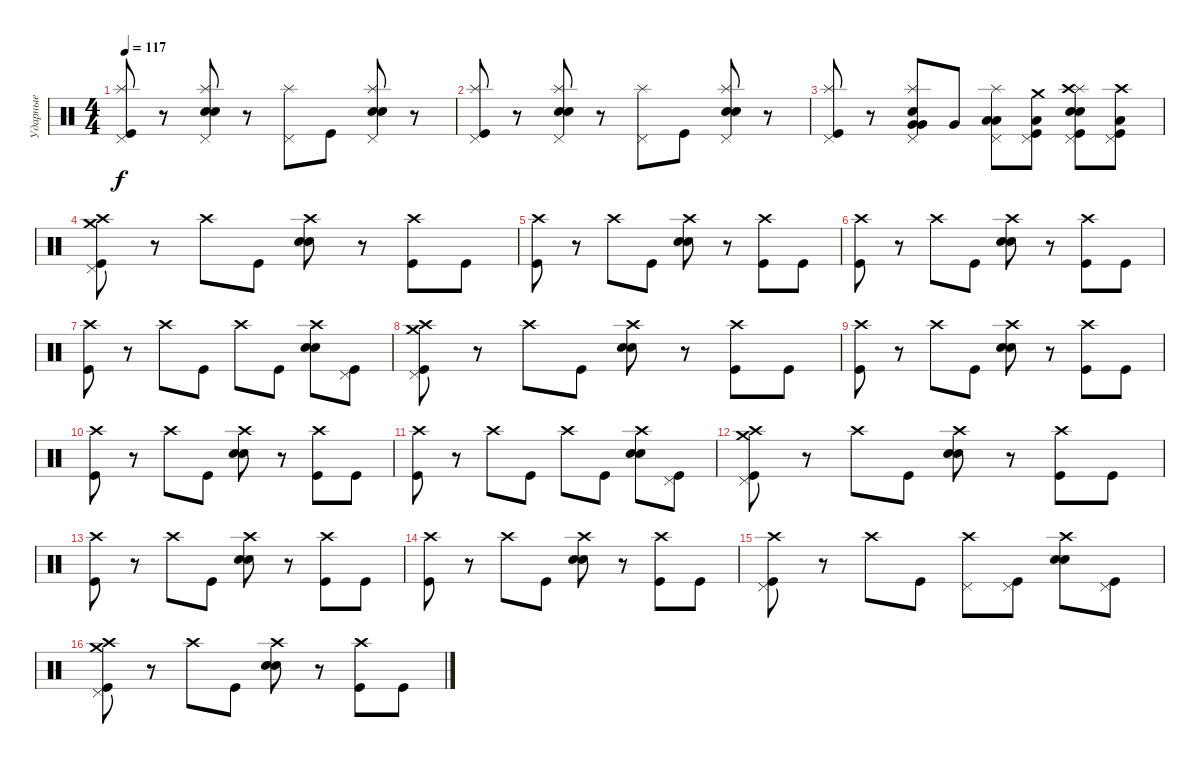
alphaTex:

\track ("Ударные" "Ударные") {instrument percussion}
\staff {score}
\articulation defaults
\ts (4 4)
\tempo 117
\clef neutral
\ks c
("Pedal Hi-Hat (hit)" "Splash (hit)" "Kick (hit)").8{dy f} r.8 ("Splash (hit)" "Pedal Hi-Hat (hit)" "Electric Snare (hit)" "Electric Snare (hit)").8 r.8 ("Splash (hit)" "Pedal Hi-Hat (hit)").8 "Kick (hit)".8 ("Splash (hit)" "Pedal Hi-Hat (hit)" "Electric Snare (hit)" "Electric Snare (hit)").8 r.8 |
("Pedal Hi-Hat (hit)" "Splash (hit)" "Kick (hit)").8 r.8 ("Splash (hit)" "Pedal Hi-Hat (hit)" "Electric Snare (hit)" "Electric Snare (hit)").8 r.8 ("Splash (hit)" "Pedal Hi-Hat (hit)").8 "Kick (hit)".8 ("Splash (hit)" "Pedal Hi-Hat (hit)" "Electric Snare (hit)" "Electric Snare (hit)").8 r.8 |
("Pedal Hi-Hat (hit)" "Splash (hit)" "Kick (hit)").8 r.8 ("Splash (hit)" "Pedal Hi-Hat (hit)" "Very Low Tom (hit)" "Very Low Tom (hit)" "Electric Snare (hit)").8 "Very Low Tom (hit)".8 ("Splash (hit)" "Pedal Hi-Hat (hit)" "Low Floor Tom (hit)" "Low Floor Tom (hit)").8 ("Crash medium (hit)" "Low Floor Tom (hit)" "Pedal Hi-Hat (hit)" "Kick (hit)").8 ("Splash (hit)" "Crash high (hit)" "Snare (hit) 2" "Electric Snare (hit)" "Pedal Hi-Hat (hit)" "Kick (hit)").8 ("Crash high (hit)" "Low Floor Tom (hit)" "Pedal Hi-Hat (hit)" "Kick (hit)").8 |
("Crash high (hit)" "Pedal Hi-Hat (hit)" "Crash medium (hit)" "Kick (hit)").8 r.8 "Crash high (hit)".8 "Kick (hit)".8 ("Crash high (hit)" "Snare (hit) 2" "Snare (hit) 2").8 r.8 ("Crash high (hit)" "Kick (hit)").8 "Kick (hit)".8 |
("Crash high (hit)" "Kick (hit)").8 r.8 "Crash high (hit)".8 "Kick (hit)".8 ("Crash high (hit)" "Snare (hit) 2" "Snare (hit) 2").8 r.8 ("Crash high (hit)" "Kick (hit)").8 "Kick (hit)".8 |
("Crash high (hit)" "Kick (hit)").8 r.8 "Crash high (hit)".8 "Kick (hit)".8 ("Crash high (hit)" "Snare (hit) 2" "Snare (hit) 2").8 r.8 ("Crash high (hit)" "Kick (hit)").8 "Kick (hit)".8 |
("Crash high (hit)" "Kick (hit)").8 r.8 "Crash high (hit)".8 "Kick (hit)".8 "Crash high (hit)".8 "Kick (hit)".8 ("Crash high (hit)" "Snare (hit) 2" "Snare (hit) 2").8 ("Pedal Hi-Hat (hit)" "Kick (hit)").8 |
("Crash high (hit)" "Pedal Hi-Hat (hit)" "Crash medium (hit)" "Kick (hit)").8 r.8 "Crash high (hit)".8 "Kick (hit)".8 ("Crash high (hit)" "Snare (hit) 2" "Snare (hit) 2").8 r.8 ("Crash high (hit)" "Kick (hit)").8 "Kick (hit)".8 |
("Crash high (hit)" "Kick (hit)").8 r.8 "Crash high (hit)".8 "Kick (hit)".8 ("Crash high (hit)" "Snare (hit) 2" "Snare (hit) 2").8 r.8 ("Crash high (hit)" "Kick (hit)").8 "Kick (hit)".8 |
("Crash high (hit)" "Kick (hit)").8 r.8 "Crash high (hit)".8 "Kick (hit)".8 ("Crash high (hit)" "Snare (hit) 2" "Snare (hit) 2").8 r.8 ("Crash high (hit)" "Kick (hit)").8 "Kick (hit)".8 |
("Crash high (hit)" "Kick (hit)").8 r.8 "Crash high (hit)".8 "Kick (hit)".8 "Crash high (hit)".8 "Kick (hit)".8 ("Crash high (hit)" "Snare (hit) 2" "Snare (hit) 2").8 ("Pedal Hi-Hat (hit)" "Kick (hit)").8 |
("Crash high (hit)" "Pedal Hi-Hat (hit)" "Crash medium (hit)" "Kick (hit)").8 r.8 "Crash high (hit)".8 "Kick (hit)".8 ("Crash high (hit)" "Snare (hit) 2" "Snare (hit) 2").8 r.8 ("Crash high (hit)" "Kick (hit)").8 "Kick (hit)".8 |
("Crash high (hit)" "Kick (hit)").8 r.8 "Crash high (hit)".8 "Kick (hit)".8 ("Crash high (hit)" "Snare (hit) 2" "Snare (hit) 2").8 r.8 ("Crash high (hit)" "Kick (hit)").8 "Kick (hit)".8 |
("Crash high (hit)" "Kick (hit)").8 r.8 "Crash high (hit)".8 "Kick (hit)".8 ("Crash high (hit)" "Snare (hit) 2" "Snare (hit) 2").8 r.8 ("Crash high (hit)" "Kick (hit)").8 "Kick (hit)".8 |
("Crash high (hit)" "Pedal Hi-Hat (hit)" "Kick (hit)").8 r.8 "Crash high (hit)".8 "Kick (hit)".8 ("Crash high (hit)" "Pedal Hi-Hat (hit)").8 ("Pedal Hi-Hat (hit)" "Kick (hit)").8 ("Crash high (hit)" "Snare (hit) 2" "Snare (hit) 2").8 ("Pedal Hi-Hat (hit)" "Kick (hit)").8 |
("Crash high (hit)" "Pedal Hi-Hat (hit)" "Crash medium (hit)" "Kick (hit)").8 r.8 "Crash high (hit)".8 "Kick (hit)".8 ("Crash high (hit)" "Snare (hit) 2" "Snare (hit) 2").8 r.8 ("Crash high (hit)" "Kick (hit)").8 "Kick (hit)".8
